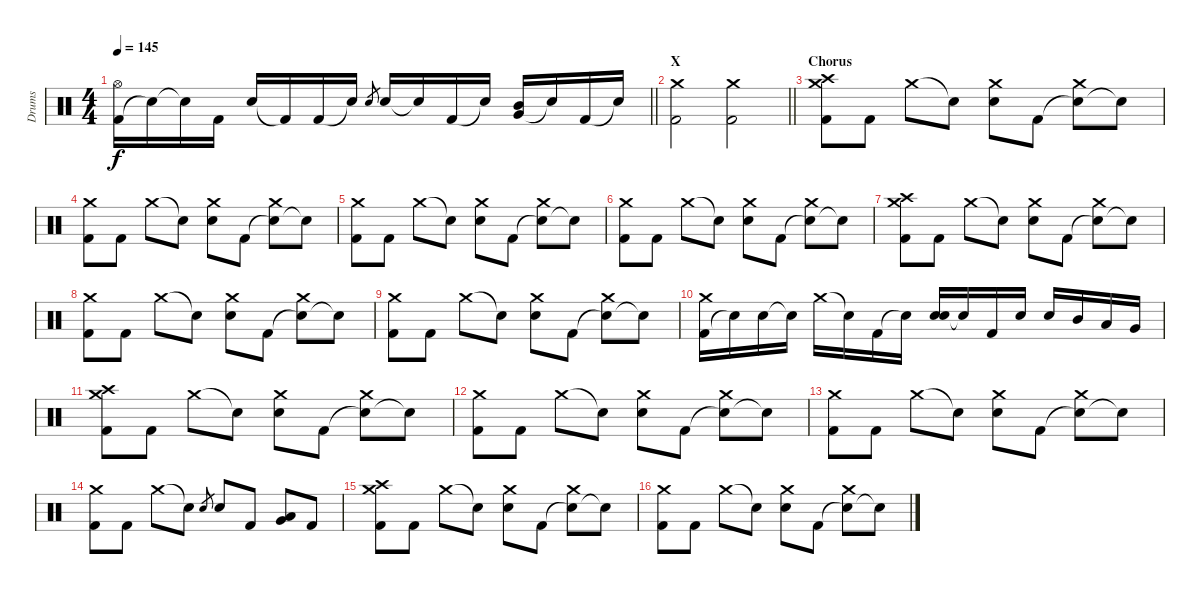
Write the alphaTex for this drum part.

\track ("Drums" "Drums") {instrument percussion}
\staff {score}
\articulation defaults
\ts (4 4)
\tempo 145
\clef neutral
\barLineRight lightlight
\ks c
("Kick (hit) 2" "Hi-Hat (open)").16{dy f} "Snare (hit)"{t}.16 "Snare (hit)"{t}.16 "Kick (hit) 2".16 "Electric Snare (hit)".16 "Kick (hit) 2"{t}.16 "Kick (hit) 2".16 "Snare (hit)"{t}.16 "Electric Snare (hit)".8{gr} "Electric Snare (hit)".16 "Snare (hit)"{t}.16 "Kick (hit) 2".16 "Snare (hit)"{t}.16 ("Very Low Tom (hit)" "Mid Tom (hit)").16 "Snare (hit)"{t}.16 "Kick (hit) 2".16 "Snare (hit)"{t}.16 |
\section ("" "X")
\barLineRight lightlight
("Kick (hit) 2" "Crash medium (hit)").2 ("Kick (hit) 2" "Crash medium (hit)").2 |
\section ("" "Chorus")
("Kick (hit) 2" "Crash medium (hit)" "Crash high (hit)").8 "Kick (hit) 2".8 "Crash medium (hit)".8 "Snare (hit)"{t}.8 ("Electric Snare (hit)" "Crash medium (hit)").8 "Kick (hit) 2".8 ("Snare (hit)"{t} "Crash medium (hit)").8 "Snare (hit)"{t}.8 |
("Kick (hit) 2" "Crash medium (hit)").8 "Kick (hit) 2".8 "Crash medium (hit)".8 "Snare (hit)"{t}.8 ("Electric Snare (hit)" "Crash medium (hit)").8 "Kick (hit) 2".8 ("Snare (hit)"{t} "Crash medium (hit)").8 "Snare (hit)"{t}.8 |
("Kick (hit) 2" "Crash medium (hit)").8 "Kick (hit) 2".8 "Crash medium (hit)".8 "Snare (hit)"{t}.8 ("Electric Snare (hit)" "Crash medium (hit)").8 "Kick (hit) 2".8 ("Snare (hit)"{t} "Crash medium (hit)").8 "Snare (hit)"{t}.8 |
("Kick (hit) 2" "Crash medium (hit)").8 "Kick (hit) 2".8 "Crash medium (hit)".8 "Snare (hit)"{t}.8 ("Electric Snare (hit)" "Crash medium (hit)").8 "Kick (hit) 2".8 ("Snare (hit)"{t} "Crash medium (hit)").8 "Snare (hit)"{t}.8 |
("Kick (hit) 2" "Crash medium (hit)" "Crash high (hit)").8 "Kick (hit) 2".8 "Crash medium (hit)".8 "Snare (hit)"{t}.8 ("Electric Snare (hit)" "Crash medium (hit)").8 "Kick (hit) 2".8 ("Snare (hit)"{t} "Crash medium (hit)").8 "Snare (hit)"{t}.8 |
("Kick (hit) 2" "Crash medium (hit)").8 "Kick (hit) 2".8 "Crash medium (hit)".8 "Snare (hit)"{t}.8 ("Electric Snare (hit)" "Crash medium (hit)").8 "Kick (hit) 2".8 ("Snare (hit)"{t} "Crash medium (hit)").8 "Snare (hit)"{t}.8 |
("Kick (hit) 2" "Crash medium (hit)").8 "Kick (hit) 2".8 "Crash medium (hit)".8 "Snare (hit)"{t}.8 ("Electric Snare (hit)" "Crash medium (hit)").8 "Kick (hit) 2".8 ("Snare (hit)"{t} "Crash medium (hit)").8 "Snare (hit)"{t}.8 |
("Kick (hit) 2" "Crash medium (hit)").16 "Snare (hit)"{t}.16 "Electric Snare (hit)".16 "Snare (hit)"{t}.16 "Crash medium (hit)".16 "Snare (hit)"{t}.16 "Kick (hit) 2".16 "Snare (hit)"{t}.16 ("Electric Snare (hit)" "Electric Snare (hit)").16 "Snare (hit)"{t}.16 "Kick (hit) 2".16 "Electric Snare (hit)".16 "Electric Snare (hit)".16 "Mid Tom (hit)".16 "Low Tom (hit)".16 "Very Low Tom (hit)".16 |
("Kick (hit) 2" "Crash medium (hit)" "Crash high (hit)").8 "Kick (hit) 2".8 "Crash medium (hit)".8 "Snare (hit)"{t}.8 ("Electric Snare (hit)" "Crash medium (hit)").8 "Kick (hit) 2".8 ("Snare (hit)"{t} "Crash medium (hit)").8 "Snare (hit)"{t}.8 |
("Kick (hit) 2" "Crash medium (hit)").8 "Kick (hit) 2".8 "Crash medium (hit)".8 "Snare (hit)"{t}.8 ("Electric Snare (hit)" "Crash medium (hit)").8 "Kick (hit) 2".8 ("Snare (hit)"{t} "Crash medium (hit)").8 "Snare (hit)"{t}.8 |
("Kick (hit) 2" "Crash medium (hit)").8 "Kick (hit) 2".8 "Crash medium (hit)".8 "Snare (hit)"{t}.8 ("Electric Snare (hit)" "Crash medium (hit)").8 "Kick (hit) 2".8 ("Snare (hit)"{t} "Crash medium (hit)").8 "Snare (hit)"{t}.8 |
("Kick (hit) 2" "Crash medium (hit)").8 "Kick (hit) 2".8 "Crash medium (hit)".8 "Snare (hit)"{t}.8 "Electric Snare (hit)".8{gr} "Electric Snare (hit)".8 "Kick (hit) 2".8 ("Low Tom (hit)" "Very Low Tom (hit)").8 "Kick (hit) 2".8 |
("Kick (hit) 2" "Crash medium (hit)" "Crash high (hit)").8 "Kick (hit) 2".8 "Crash medium (hit)".8 "Snare (hit)"{t}.8 ("Electric Snare (hit)" "Crash medium (hit)").8 "Kick (hit) 2".8 ("Snare (hit)"{t} "Crash medium (hit)").8 "Snare (hit)"{t}.8 |
("Kick (hit) 2" "Crash medium (hit)").8 "Kick (hit) 2".8 "Crash medium (hit)".8 "Snare (hit)"{t}.8 ("Electric Snare (hit)" "Crash medium (hit)").8 "Kick (hit) 2".8 ("Snare (hit)"{t} "Crash medium (hit)").8 "Snare (hit)"{t}.8
